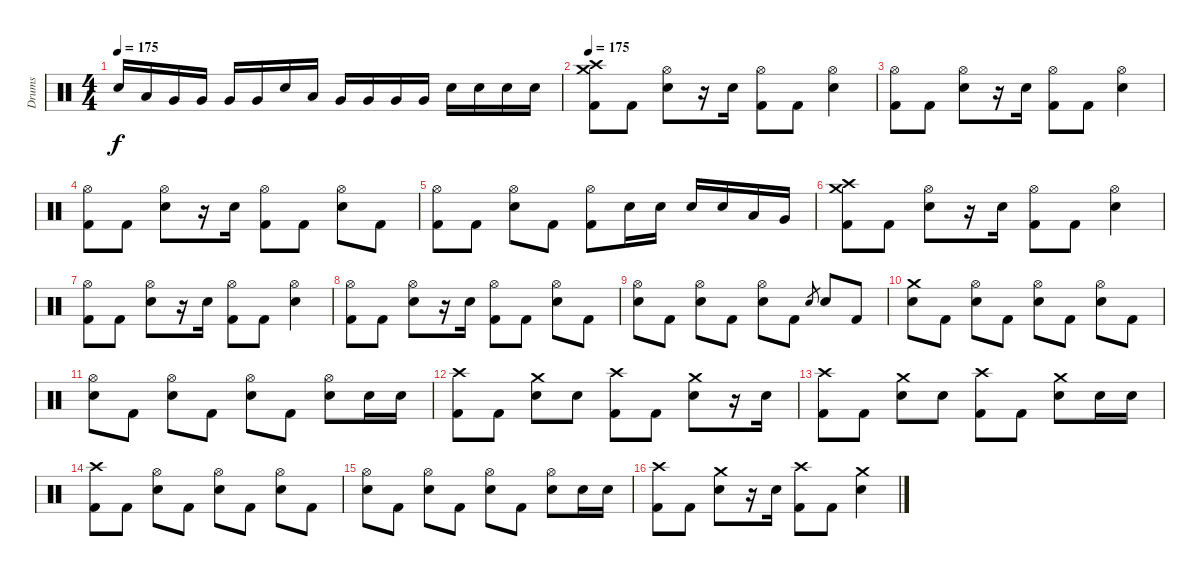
\track ("Drums" "Drums") {instrument percussion}
\staff {score}
\articulation defaults
\ts (4 4)
\tempo 175
\clef neutral
\ks c "Electric Snare (hit)".16{dy f} "Low Tom (hit)".16 "Very Low Tom (hit)".16 "Very Low Tom (hit)".16 "Very Low Tom (hit)".16 "Very Low Tom (hit)".16 "Electric Snare (hit)".16 "Low Tom (hit)".16 "Very Low Tom (hit)".16 "Very Low Tom (hit)".16 "Very Low Tom (hit)".16 "Very Low Tom (hit)".16 "Electric Snare (hit)".16 "Electric Snare (hit)".16 "Electric Snare (hit)".16 "Electric Snare (hit)".16
|
\tempo 175
("Crash high (hit)" "Crash medium (hit)" "Kick (hit) 2").8 "Kick (hit) 2".8 ("Hi-Hat (open)" "Electric Snare (hit)").8 r.16 "Electric Snare (hit)".16 ("Hi-Hat (open)" "Kick (hit) 2").8 "Kick (hit) 2".8 ("Hi-Hat (open)" "Electric Snare (hit)").4 |
("Hi-Hat (open)" "Kick (hit) 2").8 "Kick (hit) 2".8 ("Hi-Hat (open)" "Electric Snare (hit)").8 r.16 "Electric Snare (hit)".16 ("Hi-Hat (open)" "Kick (hit) 2").8 "Kick (hit) 2".8 ("Hi-Hat (open)" "Electric Snare (hit)").4 |
("Hi-Hat (open)" "Kick (hit) 2").8 "Kick (hit) 2".8 ("Hi-Hat (open)" "Electric Snare (hit)").8 r.16 "Electric Snare (hit)".16 ("Hi-Hat (open)" "Kick (hit) 2").8 "Kick (hit) 2".8 ("Hi-Hat (open)" "Electric Snare (hit)").8 "Kick (hit) 2".8 |
("Hi-Hat (open)" "Kick (hit) 2").8 "Kick (hit) 2".8 ("Hi-Hat (open)" "Electric Snare (hit)").8 "Kick (hit) 2".8 ("Hi-Hat (open)" "Kick (hit) 2").8 "Electric Snare (hit)".16 "Electric Snare (hit)".16 "Electric Snare (hit)".16 "Electric Snare (hit)".16 "Low Tom (hit)".16 "Very Low Tom (hit)".16 |
("Crash high (hit)" "Crash medium (hit)" "Kick (hit) 2").8 "Kick (hit) 2".8 ("Hi-Hat (open)" "Electric Snare (hit)").8 r.16 "Electric Snare (hit)".16 ("Hi-Hat (open)" "Kick (hit) 2").8 "Kick (hit) 2".8 ("Hi-Hat (open)" "Electric Snare (hit)").4 |
("Hi-Hat (open)" "Kick (hit) 2").8 "Kick (hit) 2".8 ("Hi-Hat (open)" "Electric Snare (hit)").8 r.16 "Electric Snare (hit)".16 ("Hi-Hat (open)" "Kick (hit) 2").8 "Kick (hit) 2".8 ("Hi-Hat (open)" "Electric Snare (hit)").4 |
("Hi-Hat (open)" "Kick (hit) 2").8 "Kick (hit) 2".8 ("Hi-Hat (open)" "Electric Snare (hit)").8 r.16 "Electric Snare (hit)".16 ("Hi-Hat (open)" "Kick (hit) 2").8 "Kick (hit) 2".8 ("Hi-Hat (open)" "Electric Snare (hit)").8 "Kick (hit) 2".8 |
("Hi-Hat (open)" "Electric Snare (hit)").8 "Kick (hit) 2".8 ("Hi-Hat (open)" "Electric Snare (hit)").8 "Kick (hit) 2".8 ("Hi-Hat (open)" "Electric Snare (hit)").8 "Kick (hit) 2".8 "Electric Snare (hit)".8{gr} "Electric Snare (hit)".8 "Kick (hit) 2".8 |
("Crash medium (hit)" "Electric Snare (hit)").8 "Kick (hit) 2".8 ("Hi-Hat (open)" "Electric Snare (hit)").8 "Kick (hit) 2".8 ("Hi-Hat (open)" "Electric Snare (hit)").8 "Kick (hit) 2".8 ("Hi-Hat (open)" "Electric Snare (hit)").8 "Kick (hit) 2".8 |
("Hi-Hat (open)" "Electric Snare (hit)").8 "Kick (hit) 2".8 ("Hi-Hat (open)" "Electric Snare (hit)").8 "Kick (hit) 2".8 ("Hi-Hat (open)" "Electric Snare (hit)").8 "Kick (hit) 2".8 ("Hi-Hat (open)" "Electric Snare (hit)").8 "Electric Snare (hit)".16 "Electric Snare (hit)".16 |
("Crash high (hit)" "Kick (hit) 2").8 "Kick (hit) 2".8 ("Crash medium (hit)" "Electric Snare (hit)").8 "Electric Snare (hit)".8 ("Crash high (hit)" "Kick (hit) 2").8 "Kick (hit) 2".8 ("Crash medium (hit)" "Electric Snare (hit)").8 r.16 "Electric Snare (hit)".16 |
("Crash high (hit)" "Kick (hit) 2").8 "Kick (hit) 2".8 ("Crash medium (hit)" "Electric Snare (hit)").8 "Electric Snare (hit)".8 ("Crash high (hit)" "Kick (hit) 2").8 "Kick (hit) 2".8 ("Crash medium (hit)" "Electric Snare (hit)").8 "Electric Snare (hit)".16 "Electric Snare (hit)".16 |
("Crash high (hit)" "Kick (hit) 2").8 "Kick (hit) 2".8 ("Hi-Hat (open)" "Electric Snare (hit)").8 "Kick (hit) 2".8 ("Hi-Hat (open)" "Electric Snare (hit)").8 "Kick (hit) 2".8 ("Hi-Hat (open)" "Electric Snare (hit)").8 "Kick (hit) 2".8 |
("Hi-Hat (open)" "Electric Snare (hit)").8 "Kick (hit) 2".8 ("Hi-Hat (open)" "Electric Snare (hit)").8 "Kick (hit) 2".8 ("Hi-Hat (open)" "Electric Snare (hit)").8 "Kick (hit) 2".8 ("Hi-Hat (open)" "Electric Snare (hit)").8 "Electric Snare (hit)".16 "Electric Snare (hit)".16 |
("Crash high (hit)" "Kick (hit) 2").8 "Kick (hit) 2".8 ("Crash medium (hit)" "Electric Snare (hit)").8 r.16 "Electric Snare (hit)".16 ("Crash high (hit)" "Kick (hit) 2").8 "Kick (hit) 2".8 ("Crash medium (hit)" "Electric Snare (hit)").4
